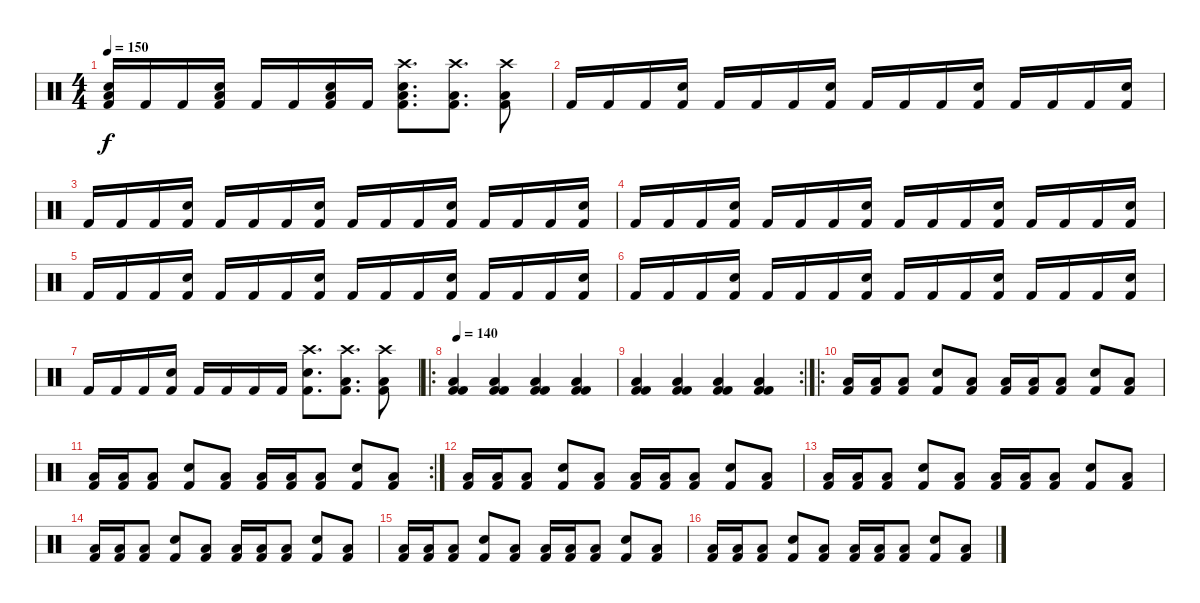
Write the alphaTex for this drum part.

\track "" {instrument percussion}
\staff {score}
\articulation defaults
\ts (4 4)
\tempo 150
\clef neutral
\ks c
("Kick (hit) 2" "Low Tom (hit)" "Snare (hit) 2").16{dy f} "Kick (hit) 2".16 "Kick (hit) 2".16 ("Kick (hit) 2" "Low Tom (hit)" "Snare (hit) 2").16 "Kick (hit) 2".16 "Kick (hit) 2".16 ("Kick (hit) 2" "Low Tom (hit)" "Snare (hit) 2").16 "Kick (hit) 2".16 ("Kick (hit) 2" "Low Tom (hit)" "Snare (hit) 2" "Crash high (hit)").8{d} ("Kick (hit) 2" "Low Tom (hit)" "Crash high (hit)").8{d} ("Kick (hit) 2" "Low Tom (hit)" "Crash high (hit)").8 |
"Kick (hit) 2".16 "Kick (hit) 2".16 "Kick (hit) 2".16 ("Kick (hit) 2" "Snare (hit) 2").16 "Kick (hit) 2".16 "Kick (hit) 2".16 "Kick (hit) 2".16 ("Kick (hit) 2" "Snare (hit) 2").16 "Kick (hit) 2".16 "Kick (hit) 2".16 "Kick (hit) 2".16 ("Kick (hit) 2" "Snare (hit) 2").16 "Kick (hit) 2".16 "Kick (hit) 2".16 "Kick (hit) 2".16 ("Kick (hit) 2" "Snare (hit) 2").16 |
"Kick (hit) 2".16 "Kick (hit) 2".16 "Kick (hit) 2".16 ("Kick (hit) 2" "Snare (hit) 2").16 "Kick (hit) 2".16 "Kick (hit) 2".16 "Kick (hit) 2".16 ("Kick (hit) 2" "Snare (hit) 2").16 "Kick (hit) 2".16 "Kick (hit) 2".16 "Kick (hit) 2".16 ("Kick (hit) 2" "Snare (hit) 2").16 "Kick (hit) 2".16 "Kick (hit) 2".16 "Kick (hit) 2".16 ("Kick (hit) 2" "Snare (hit) 2").16 |
"Kick (hit) 2".16 "Kick (hit) 2".16 "Kick (hit) 2".16 ("Kick (hit) 2" "Snare (hit) 2").16 "Kick (hit) 2".16 "Kick (hit) 2".16 "Kick (hit) 2".16 ("Kick (hit) 2" "Snare (hit) 2").16 "Kick (hit) 2".16 "Kick (hit) 2".16 "Kick (hit) 2".16 ("Kick (hit) 2" "Snare (hit) 2").16 "Kick (hit) 2".16 "Kick (hit) 2".16 "Kick (hit) 2".16 ("Kick (hit) 2" "Snare (hit) 2").16 |
"Kick (hit) 2".16 "Kick (hit) 2".16 "Kick (hit) 2".16 ("Kick (hit) 2" "Snare (hit) 2").16 "Kick (hit) 2".16 "Kick (hit) 2".16 "Kick (hit) 2".16 ("Kick (hit) 2" "Snare (hit) 2").16 "Kick (hit) 2".16 "Kick (hit) 2".16 "Kick (hit) 2".16 ("Kick (hit) 2" "Snare (hit) 2").16 "Kick (hit) 2".16 "Kick (hit) 2".16 "Kick (hit) 2".16 ("Kick (hit) 2" "Snare (hit) 2").16 |
"Kick (hit) 2".16 "Kick (hit) 2".16 "Kick (hit) 2".16 ("Kick (hit) 2" "Snare (hit) 2").16 "Kick (hit) 2".16 "Kick (hit) 2".16 "Kick (hit) 2".16 ("Kick (hit) 2" "Snare (hit) 2").16 "Kick (hit) 2".16 "Kick (hit) 2".16 "Kick (hit) 2".16 ("Kick (hit) 2" "Snare (hit) 2").16 "Kick (hit) 2".16 "Kick (hit) 2".16 "Kick (hit) 2".16 ("Kick (hit) 2" "Snare (hit) 2").16 |
"Kick (hit) 2".16 "Kick (hit) 2".16 "Kick (hit) 2".16 ("Kick (hit) 2" "Snare (hit) 2").16 "Kick (hit) 2".16 "Kick (hit) 2".16 "Kick (hit) 2".16 "Kick (hit) 2".16 ("Kick (hit) 2" "Snare (hit) 2" "Crash high (hit)").8{d} ("Kick (hit) 2" "Low Tom (hit)" "Crash high (hit)").8{d} ("Kick (hit) 2" "Low Tom (hit)" "Crash high (hit)").8 |
\ro
\tempo 140
("Kick (hit) 2" "Kick (hit) 2" "Low Tom (hit)").4 ("Kick (hit) 2" "Kick (hit) 2" "Low Tom (hit)").4 ("Kick (hit) 2" "Kick (hit) 2" "Low Tom (hit)").4 ("Kick (hit) 2" "Kick (hit) 2" "Low Tom (hit)").4 |
\rc 2
("Kick (hit) 2" "Kick (hit) 2" "Low Tom (hit)").4 ("Kick (hit) 2" "Kick (hit) 2" "Low Tom (hit)").4 ("Kick (hit) 2" "Kick (hit) 2" "Low Tom (hit)").4 ("Kick (hit) 2" "Kick (hit) 2" "Low Tom (hit)").4 |
\ro
("Kick (hit) 2" "Low Tom (hit)").16 ("Kick (hit) 2" "Low Tom (hit)").16 ("Kick (hit) 2" "Low Tom (hit)").8 ("Kick (hit) 2" "Snare (hit) 2").8 ("Kick (hit) 2" "Low Tom (hit)").8 ("Kick (hit) 2" "Low Tom (hit)").16 ("Kick (hit) 2" "Low Tom (hit)").16 ("Kick (hit) 2" "Low Tom (hit)").8 ("Kick (hit) 2" "Snare (hit) 2").8 ("Kick (hit) 2" "Low Tom (hit)").8 |
\rc 2
("Kick (hit) 2" "Low Tom (hit)").16 ("Kick (hit) 2" "Low Tom (hit)").16 ("Kick (hit) 2" "Low Tom (hit)").8 ("Kick (hit) 2" "Snare (hit) 2").8 ("Kick (hit) 2" "Low Tom (hit)").8 ("Kick (hit) 2" "Low Tom (hit)").16 ("Kick (hit) 2" "Low Tom (hit)").16 ("Kick (hit) 2" "Low Tom (hit)").8 ("Kick (hit) 2" "Snare (hit) 2").8 ("Kick (hit) 2" "Low Tom (hit)").8 |
("Kick (hit) 2" "Low Tom (hit)").16 ("Kick (hit) 2" "Low Tom (hit)").16 ("Kick (hit) 2" "Low Tom (hit)").8 ("Kick (hit) 2" "Snare (hit) 2").8 ("Kick (hit) 2" "Low Tom (hit)").8 ("Kick (hit) 2" "Low Tom (hit)").16 ("Kick (hit) 2" "Low Tom (hit)").16 ("Kick (hit) 2" "Low Tom (hit)").8 ("Kick (hit) 2" "Snare (hit) 2").8 ("Kick (hit) 2" "Low Tom (hit)").8 |
("Kick (hit) 2" "Low Tom (hit)").16 ("Kick (hit) 2" "Low Tom (hit)").16 ("Kick (hit) 2" "Low Tom (hit)").8 ("Kick (hit) 2" "Snare (hit) 2").8 ("Kick (hit) 2" "Low Tom (hit)").8 ("Kick (hit) 2" "Low Tom (hit)").16 ("Kick (hit) 2" "Low Tom (hit)").16 ("Kick (hit) 2" "Low Tom (hit)").8 ("Kick (hit) 2" "Snare (hit) 2").8 ("Kick (hit) 2" "Low Tom (hit)").8 |
("Kick (hit) 2" "Low Tom (hit)").16 ("Kick (hit) 2" "Low Tom (hit)").16 ("Kick (hit) 2" "Low Tom (hit)").8 ("Kick (hit) 2" "Snare (hit) 2").8 ("Kick (hit) 2" "Low Tom (hit)").8 ("Kick (hit) 2" "Low Tom (hit)").16 ("Kick (hit) 2" "Low Tom (hit)").16 ("Kick (hit) 2" "Low Tom (hit)").8 ("Kick (hit) 2" "Snare (hit) 2").8 ("Kick (hit) 2" "Low Tom (hit)").8 |
("Kick (hit) 2" "Low Tom (hit)").16 ("Kick (hit) 2" "Low Tom (hit)").16 ("Kick (hit) 2" "Low Tom (hit)").8 ("Kick (hit) 2" "Snare (hit) 2").8 ("Kick (hit) 2" "Low Tom (hit)").8 ("Kick (hit) 2" "Low Tom (hit)").16 ("Kick (hit) 2" "Low Tom (hit)").16 ("Kick (hit) 2" "Low Tom (hit)").8 ("Kick (hit) 2" "Snare (hit) 2").8 ("Kick (hit) 2" "Low Tom (hit)").8 |
("Kick (hit) 2" "Low Tom (hit)").16 ("Kick (hit) 2" "Low Tom (hit)").16 ("Kick (hit) 2" "Low Tom (hit)").8 ("Kick (hit) 2" "Snare (hit) 2").8 ("Kick (hit) 2" "Low Tom (hit)").8 ("Kick (hit) 2" "Low Tom (hit)").16 ("Kick (hit) 2" "Low Tom (hit)").16 ("Kick (hit) 2" "Low Tom (hit)").8 ("Kick (hit) 2" "Snare (hit) 2").8 ("Kick (hit) 2" "Low Tom (hit)").8
